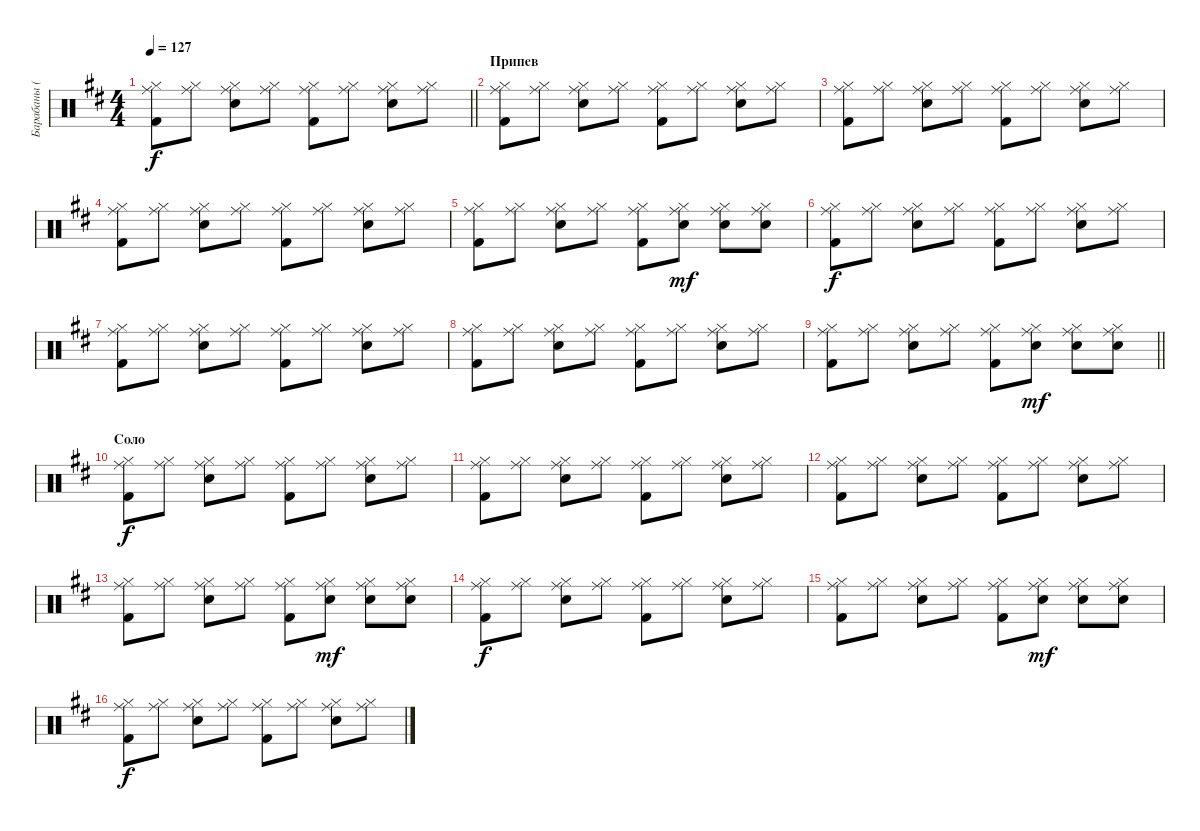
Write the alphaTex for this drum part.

\track ("Барабаны (Е.Летов)" "Барабаны (") {instrument percussion}
\staff {score}
\articulation defaults
\ts (4 4)
\tempo 127
\clef neutral
\barLineRight lightlight
\ks d
("Kick (hit) 2" "Ride (middle)" "Hi-Hat (closed)").8{dy f} ("Ride (middle)" "Hi-Hat (closed)").8 ("Snare (hit) 2" "Ride (middle)" "Hi-Hat (closed)").8 ("Ride (middle)" "Hi-Hat (closed)").8 ("Kick (hit) 2" "Ride (middle)" "Hi-Hat (closed)").8 ("Ride (middle)" "Hi-Hat (closed)").8 ("Snare (hit) 2" "Ride (middle)" "Hi-Hat (closed)").8 ("Ride (middle)" "Hi-Hat (closed)").8 |
\section ("" "Припев")
("Kick (hit) 2" "Ride (middle)" "Hi-Hat (closed)").8 ("Ride (middle)" "Hi-Hat (closed)").8 ("Snare (hit) 2" "Ride (middle)" "Hi-Hat (closed)").8 ("Ride (middle)" "Hi-Hat (closed)").8 ("Kick (hit) 2" "Ride (middle)" "Hi-Hat (closed)").8 ("Ride (middle)" "Hi-Hat (closed)").8 ("Snare (hit) 2" "Ride (middle)" "Hi-Hat (closed)").8 ("Ride (middle)" "Hi-Hat (closed)").8 |
("Kick (hit) 2" "Ride (middle)" "Hi-Hat (closed)").8 ("Ride (middle)" "Hi-Hat (closed)").8 ("Snare (hit) 2" "Ride (middle)" "Hi-Hat (closed)").8 ("Ride (middle)" "Hi-Hat (closed)").8 ("Kick (hit) 2" "Ride (middle)" "Hi-Hat (closed)").8 ("Ride (middle)" "Hi-Hat (closed)").8 ("Snare (hit) 2" "Ride (middle)" "Hi-Hat (closed)").8 ("Ride (middle)" "Hi-Hat (closed)").8 |
("Kick (hit) 2" "Ride (middle)" "Hi-Hat (closed)").8 ("Ride (middle)" "Hi-Hat (closed)").8 ("Snare (hit) 2" "Ride (middle)" "Hi-Hat (closed)").8 ("Ride (middle)" "Hi-Hat (closed)").8 ("Kick (hit) 2" "Ride (middle)" "Hi-Hat (closed)").8 ("Ride (middle)" "Hi-Hat (closed)").8 ("Snare (hit) 2" "Ride (middle)" "Hi-Hat (closed)").8 ("Ride (middle)" "Hi-Hat (closed)").8 |
("Kick (hit) 2" "Ride (middle)" "Hi-Hat (closed)").8 ("Ride (middle)" "Hi-Hat (closed)").8 ("Snare (hit) 2" "Ride (middle)" "Hi-Hat (closed)").8 ("Ride (middle)" "Hi-Hat (closed)").8 ("Kick (hit) 2" "Ride (middle)" "Hi-Hat (closed)").8 ("Snare (hit) 2" "Ride (middle)" "Hi-Hat (closed)").8{dy mf} ("Snare (hit) 2" "Ride (middle)" "Hi-Hat (closed)").8 ("Snare (hit) 2" "Ride (middle)" "Hi-Hat (closed)").8 |
("Kick (hit) 2" "Ride (middle)" "Hi-Hat (closed)").8{dy f} ("Ride (middle)" "Hi-Hat (closed)").8 ("Snare (hit) 2" "Ride (middle)" "Hi-Hat (closed)").8 ("Ride (middle)" "Hi-Hat (closed)").8 ("Kick (hit) 2" "Ride (middle)" "Hi-Hat (closed)").8 ("Ride (middle)" "Hi-Hat (closed)").8 ("Snare (hit) 2" "Ride (middle)" "Hi-Hat (closed)").8 ("Ride (middle)" "Hi-Hat (closed)").8 |
("Kick (hit) 2" "Ride (middle)" "Hi-Hat (closed)").8 ("Ride (middle)" "Hi-Hat (closed)").8 ("Snare (hit) 2" "Ride (middle)" "Hi-Hat (closed)").8 ("Ride (middle)" "Hi-Hat (closed)").8 ("Kick (hit) 2" "Ride (middle)" "Hi-Hat (closed)").8 ("Ride (middle)" "Hi-Hat (closed)").8 ("Snare (hit) 2" "Ride (middle)" "Hi-Hat (closed)").8 ("Ride (middle)" "Hi-Hat (closed)").8 |
("Kick (hit) 2" "Ride (middle)" "Hi-Hat (closed)").8 ("Ride (middle)" "Hi-Hat (closed)").8 ("Snare (hit) 2" "Ride (middle)" "Hi-Hat (closed)").8 ("Ride (middle)" "Hi-Hat (closed)").8 ("Kick (hit) 2" "Ride (middle)" "Hi-Hat (closed)").8 ("Ride (middle)" "Hi-Hat (closed)").8 ("Snare (hit) 2" "Ride (middle)" "Hi-Hat (closed)").8 ("Ride (middle)" "Hi-Hat (closed)").8 |
\barLineRight lightlight
("Kick (hit) 2" "Ride (middle)" "Hi-Hat (closed)").8 ("Ride (middle)" "Hi-Hat (closed)").8 ("Snare (hit) 2" "Ride (middle)" "Hi-Hat (closed)").8 ("Ride (middle)" "Hi-Hat (closed)").8 ("Kick (hit) 2" "Ride (middle)" "Hi-Hat (closed)").8 ("Snare (hit) 2" "Ride (middle)" "Hi-Hat (closed)").8{dy mf} ("Snare (hit) 2" "Ride (middle)" "Hi-Hat (closed)").8 ("Snare (hit) 2" "Ride (middle)" "Hi-Hat (closed)").8 |
\section ("" "Соло")
("Kick (hit) 2" "Ride (middle)" "Hi-Hat (closed)").8{dy f} ("Ride (middle)" "Hi-Hat (closed)").8 ("Snare (hit) 2" "Ride (middle)" "Hi-Hat (closed)").8 ("Ride (middle)" "Hi-Hat (closed)").8 ("Kick (hit) 2" "Ride (middle)" "Hi-Hat (closed)").8 ("Ride (middle)" "Hi-Hat (closed)").8 ("Snare (hit) 2" "Ride (middle)" "Hi-Hat (closed)").8 ("Ride (middle)" "Hi-Hat (closed)").8 |
("Kick (hit) 2" "Ride (middle)" "Hi-Hat (closed)").8 ("Ride (middle)" "Hi-Hat (closed)").8 ("Snare (hit) 2" "Ride (middle)" "Hi-Hat (closed)").8 ("Ride (middle)" "Hi-Hat (closed)").8 ("Kick (hit) 2" "Ride (middle)" "Hi-Hat (closed)").8 ("Ride (middle)" "Hi-Hat (closed)").8 ("Snare (hit) 2" "Ride (middle)" "Hi-Hat (closed)").8 ("Ride (middle)" "Hi-Hat (closed)").8 |
("Kick (hit) 2" "Ride (middle)" "Hi-Hat (closed)").8 ("Ride (middle)" "Hi-Hat (closed)").8 ("Snare (hit) 2" "Ride (middle)" "Hi-Hat (closed)").8 ("Ride (middle)" "Hi-Hat (closed)").8 ("Kick (hit) 2" "Ride (middle)" "Hi-Hat (closed)").8 ("Ride (middle)" "Hi-Hat (closed)").8 ("Snare (hit) 2" "Ride (middle)" "Hi-Hat (closed)").8 ("Ride (middle)" "Hi-Hat (closed)").8 |
("Kick (hit) 2" "Ride (middle)" "Hi-Hat (closed)").8 ("Ride (middle)" "Hi-Hat (closed)").8 ("Snare (hit) 2" "Ride (middle)" "Hi-Hat (closed)").8 ("Ride (middle)" "Hi-Hat (closed)").8 ("Kick (hit) 2" "Ride (middle)" "Hi-Hat (closed)").8 ("Snare (hit) 2" "Ride (middle)" "Hi-Hat (closed)").8{dy mf} ("Snare (hit) 2" "Ride (middle)" "Hi-Hat (closed)").8 ("Snare (hit) 2" "Ride (middle)" "Hi-Hat (closed)").8 |
("Kick (hit) 2" "Ride (middle)" "Hi-Hat (closed)").8{dy f} ("Ride (middle)" "Hi-Hat (closed)").8 ("Snare (hit) 2" "Ride (middle)" "Hi-Hat (closed)").8 ("Ride (middle)" "Hi-Hat (closed)").8 ("Kick (hit) 2" "Ride (middle)" "Hi-Hat (closed)").8 ("Ride (middle)" "Hi-Hat (closed)").8 ("Snare (hit) 2" "Ride (middle)" "Hi-Hat (closed)").8 ("Ride (middle)" "Hi-Hat (closed)").8 |
("Kick (hit) 2" "Ride (middle)" "Hi-Hat (closed)").8 ("Ride (middle)" "Hi-Hat (closed)").8 ("Snare (hit) 2" "Ride (middle)" "Hi-Hat (closed)").8 ("Ride (middle)" "Hi-Hat (closed)").8 ("Kick (hit) 2" "Ride (middle)" "Hi-Hat (closed)").8 ("Snare (hit) 2" "Ride (middle)" "Hi-Hat (closed)").8{dy mf} ("Snare (hit) 2" "Ride (middle)" "Hi-Hat (closed)").8 ("Snare (hit) 2" "Ride (middle)" "Hi-Hat (closed)").8 |
("Kick (hit) 2" "Ride (middle)" "Hi-Hat (closed)").8{dy f} ("Ride (middle)" "Hi-Hat (closed)").8 ("Snare (hit) 2" "Ride (middle)" "Hi-Hat (closed)").8 ("Ride (middle)" "Hi-Hat (closed)").8 ("Kick (hit) 2" "Ride (middle)" "Hi-Hat (closed)").8 ("Ride (middle)" "Hi-Hat (closed)").8 ("Snare (hit) 2" "Ride (middle)" "Hi-Hat (closed)").8 ("Ride (middle)" "Hi-Hat (closed)").8
